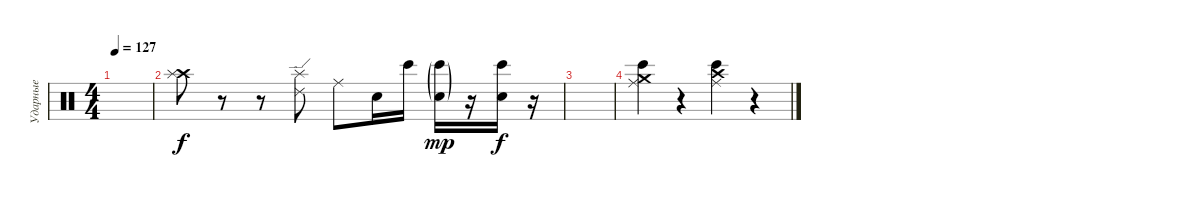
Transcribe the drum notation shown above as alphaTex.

\track ("Ударные" "Ударные") {instrument percussion}
\staff {score}
\articulation defaults
\ts (4 4)
\tempo 127
\clef neutral
\ks c
|
("Crash high (hit)" "Splash (hit)").8{dy f} r.8 r.8 ("Splash (hit)" "Ride (edge) 2").8 "Ride (middle)".8 "Hand Clap (hit)".16 "Bongo High (hit)".16 ("Hand Clap (hit)"{g} "Bongo High (hit)"{g}).16{dy mp} r.16 ("Hand Clap (hit)" "Bongo High (hit)").16{dy f} r.16 |
|
("Crash medium (hit)" "Ride (middle)" "Bongo High (hit)").4 r.4 ("Crash high (hit)" "Ride (middle)" "Bongo High (hit)").4 r.4
